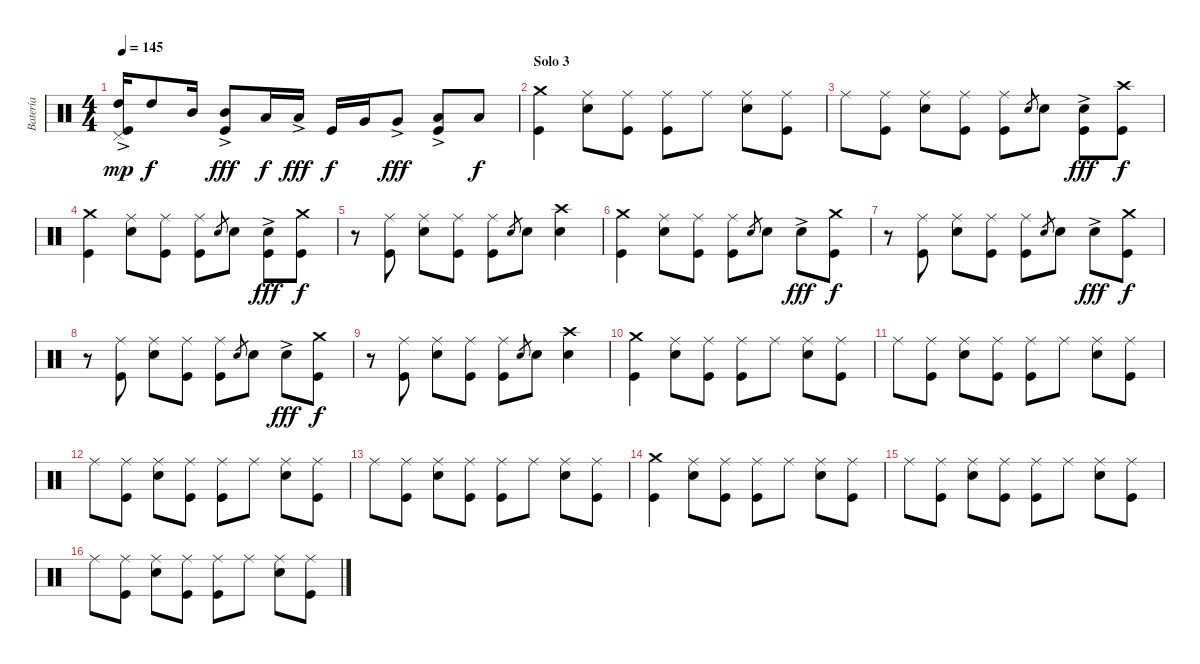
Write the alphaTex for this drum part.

\track ("Batería" "Batería") {instrument percussion}
\staff {score}
\articulation defaults
\ts (4 4)
\tempo 145
\clef neutral
\ks c
("Kick (hit)" "High Tom (hit)"{ac} "Pedal Hi-Hat (hit)").16{dy mp} "High Tom (hit)".8{dy f} "Mid Tom (hit)".16 ("Kick (hit)" "Mid Tom (hit)"{ac}).8{dy fff} "Low Tom (hit)".16{dy f} "Low Tom (hit)"{ac}.16{dy fff} "Kick (hit)".16{dy f} "Very Low Tom (hit)".16 "Very Low Tom (hit)"{ac}.8{dy fff} ("Kick (hit)" "Low Floor Tom (hit)"{ac}).8 "Low Floor Tom (hit)".8{dy f} |
\section ("" "Solo 3")
("Kick (hit)" "Crash medium (hit)").4 ("Electric Snare (hit)" "Ride (middle)").8 ("Kick (hit)" "Ride (middle)").8 ("Kick (hit)" "Ride (middle)").8 "Ride (middle)".8 ("Electric Snare (hit)" "Ride (middle)").8 ("Kick (hit)" "Ride (middle)").8 |
"Ride (middle)".8 ("Kick (hit)" "Ride (middle)").8 ("Electric Snare (hit)" "Ride (middle)").8 ("Kick (hit)" "Ride (middle)").8 ("Kick (hit)" "Ride (middle)").8 "Electric Snare (hit)".8{gr} "Electric Snare (hit)".8 ("Kick (hit)" "Electric Snare (hit)"{ac}).8{dy fff} ("Kick (hit)" "Crash high (hit)").8{dy f} |
("Kick (hit)" "Crash medium (hit)").4 ("Electric Snare (hit)" "Ride (middle)").8 ("Kick (hit)" "Ride (middle)").8 ("Kick (hit)" "Ride (middle)").8 "Electric Snare (hit)".8{gr} "Electric Snare (hit)".8 ("Kick (hit)" "Electric Snare (hit)"{ac}).8{dy fff} ("Kick (hit)" "Crash medium (hit)").8{dy f} |
r.8 ("Kick (hit)" "Ride (middle)").8 ("Electric Snare (hit)" "Ride (middle)").8 ("Kick (hit)" "Ride (middle)").8 ("Kick (hit)" "Ride (middle)").8 "Electric Snare (hit)".8{gr} "Electric Snare (hit)".8 ("Electric Snare (hit)" "Crash high (hit)").4 |
("Kick (hit)" "Crash medium (hit)").4 ("Electric Snare (hit)" "Ride (middle)").8 ("Kick (hit)" "Ride (middle)").8 ("Kick (hit)" "Ride (middle)").8 "Electric Snare (hit)".8{gr} "Electric Snare (hit)".8 "Electric Snare (hit)"{ac}.8{dy fff} ("Kick (hit)" "Crash medium (hit)").8{dy f} |
r.8 ("Kick (hit)" "Ride (middle)").8 ("Electric Snare (hit)" "Ride (middle)").8 ("Kick (hit)" "Ride (middle)").8 ("Kick (hit)" "Ride (middle)").8 "Electric Snare (hit)".8{gr} "Electric Snare (hit)".8 "Electric Snare (hit)"{ac}.8{dy fff} ("Kick (hit)" "Crash medium (hit)").8{dy f} |
r.8 ("Kick (hit)" "Ride (middle)").8 ("Electric Snare (hit)" "Ride (middle)").8 ("Kick (hit)" "Ride (middle)").8 ("Kick (hit)" "Ride (middle)").8 "Electric Snare (hit)".8{gr} "Electric Snare (hit)".8 "Electric Snare (hit)"{ac}.8{dy fff} ("Kick (hit)" "Crash medium (hit)").8{dy f} |
r.8 ("Kick (hit)" "Ride (middle)").8 ("Electric Snare (hit)" "Ride (middle)").8 ("Kick (hit)" "Ride (middle)").8 ("Kick (hit)" "Ride (middle)").8 "Electric Snare (hit)".8{gr} "Electric Snare (hit)".8 ("Electric Snare (hit)" "Crash high (hit)").4 |
("Kick (hit)" "Crash medium (hit)").4 ("Electric Snare (hit)" "Ride (middle)").8 ("Kick (hit)" "Ride (middle)").8 ("Kick (hit)" "Ride (middle)").8 "Ride (middle)".8 ("Electric Snare (hit)" "Ride (middle)").8 ("Kick (hit)" "Ride (middle)").8 |
"Ride (middle)".8 ("Kick (hit)" "Ride (middle)").8 ("Electric Snare (hit)" "Ride (middle)").8 ("Kick (hit)" "Ride (middle)").8 ("Kick (hit)" "Ride (middle)").8 "Ride (middle)".8 ("Electric Snare (hit)" "Ride (middle)").8 ("Kick (hit)" "Ride (middle)").8 |
"Ride (middle)".8 ("Kick (hit)" "Ride (middle)").8 ("Electric Snare (hit)" "Ride (middle)").8 ("Kick (hit)" "Ride (middle)").8 ("Kick (hit)" "Ride (middle)").8 "Ride (middle)".8 ("Electric Snare (hit)" "Ride (middle)").8 ("Kick (hit)" "Ride (middle)").8 |
"Ride (middle)".8 ("Kick (hit)" "Ride (middle)").8 ("Electric Snare (hit)" "Ride (middle)").8 ("Kick (hit)" "Ride (middle)").8 ("Kick (hit)" "Ride (middle)").8 "Ride (middle)".8 ("Electric Snare (hit)" "Ride (middle)").8 ("Kick (hit)" "Ride (middle)").8 |
("Kick (hit)" "Crash medium (hit)").4 ("Electric Snare (hit)" "Ride (middle)").8 ("Kick (hit)" "Ride (middle)").8 ("Kick (hit)" "Ride (middle)").8 "Ride (middle)".8 ("Electric Snare (hit)" "Ride (middle)").8 ("Kick (hit)" "Ride (middle)").8 |
"Ride (middle)".8 ("Kick (hit)" "Ride (middle)").8 ("Electric Snare (hit)" "Ride (middle)").8 ("Kick (hit)" "Ride (middle)").8 ("Kick (hit)" "Ride (middle)").8 "Ride (middle)".8 ("Electric Snare (hit)" "Ride (middle)").8 ("Kick (hit)" "Ride (middle)").8 |
"Ride (middle)".8 ("Kick (hit)" "Ride (middle)").8 ("Electric Snare (hit)" "Ride (middle)").8 ("Kick (hit)" "Ride (middle)").8 ("Kick (hit)" "Ride (middle)").8 "Ride (middle)".8 ("Electric Snare (hit)" "Ride (middle)").8 ("Kick (hit)" "Ride (middle)").8
